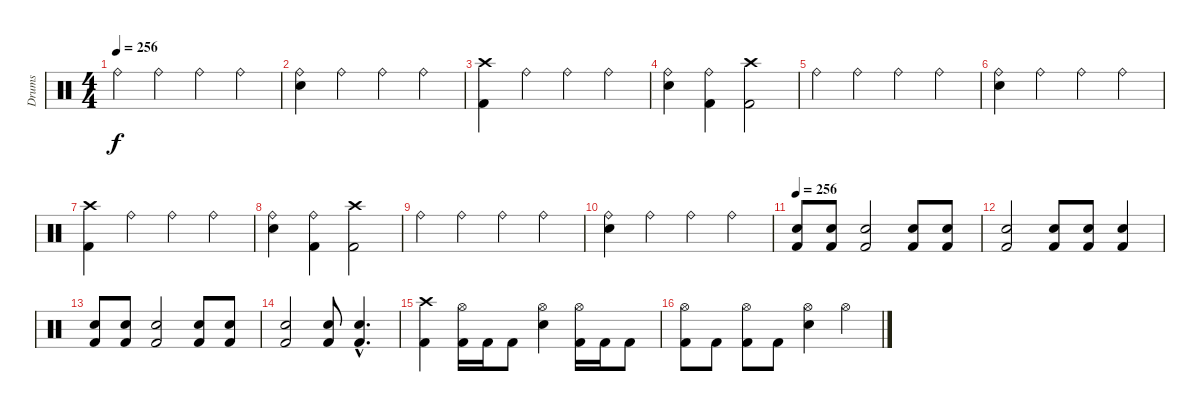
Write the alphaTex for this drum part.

\track ("Drums" "Drums") {instrument percussion}
\staff {score}
\articulation defaults
\ts (4 4)
\tempo 256
\clef neutral
\ks c "Ride (bell)".4{dy f} "Ride (bell)".4 "Ride (bell)".4 "Ride (bell)".4
|
("Electric Snare (hit)" "Ride (bell)").4 "Ride (bell)".4 "Ride (bell)".4 "Ride (bell)".4 |
("Crash high (hit)" "Kick (hit) 2").4 "Ride (bell)".4 "Ride (bell)".4 "Ride (bell)".4 |
("Electric Snare (hit)" "Ride (bell)").4 ("Kick (hit) 2" "Ride (bell)").4 ("Crash high (hit)" "Kick (hit) 2").2 |
"Ride (bell)".4 "Ride (bell)".4 "Ride (bell)".4 "Ride (bell)".4 |
("Electric Snare (hit)" "Ride (bell)").4 "Ride (bell)".4 "Ride (bell)".4 "Ride (bell)".4 |
("Crash high (hit)" "Kick (hit) 2").4 "Ride (bell)".4 "Ride (bell)".4 "Ride (bell)".4 |
("Electric Snare (hit)" "Ride (bell)").4 ("Kick (hit) 2" "Ride (bell)").4 ("Crash high (hit)" "Kick (hit) 2").2 |
"Ride (bell)".4 "Ride (bell)".4 "Ride (bell)".4 "Ride (bell)".4 |
("Electric Snare (hit)" "Ride (bell)").4 "Ride (bell)".4 "Ride (bell)".4 "Ride (bell)".4 |
\tempo 256
("Electric Snare (hit)" "Kick (hit) 2").8 ("Electric Snare (hit)" "Kick (hit) 2").8 ("Electric Snare (hit)" "Kick (hit) 2").2 ("Electric Snare (hit)" "Kick (hit) 2").8 ("Electric Snare (hit)" "Kick (hit) 2").8 |
("Electric Snare (hit)" "Kick (hit) 2").2 ("Electric Snare (hit)" "Kick (hit) 2").8 ("Electric Snare (hit)" "Kick (hit) 2").8 ("Electric Snare (hit)" "Kick (hit) 2").4 |
("Electric Snare (hit)" "Kick (hit) 2").8 ("Electric Snare (hit)" "Kick (hit) 2").8 ("Electric Snare (hit)" "Kick (hit) 2").2 ("Electric Snare (hit)" "Kick (hit) 2").8 ("Electric Snare (hit)" "Kick (hit) 2").8 |
("Electric Snare (hit)" "Kick (hit) 2").2 ("Electric Snare (hit)" "Kick (hit) 2").8 ("Electric Snare (hit)"{hac} "Kick (hit) 2"{hac}).4{d} |
("Crash high (hit)" "Kick (hit) 2").4 ("Hi-Hat (open)" "Kick (hit) 2").16 "Kick (hit) 2".16 "Kick (hit) 2".8 ("Hi-Hat (open)" "Electric Snare (hit)").4 ("Hi-Hat (open)" "Kick (hit) 2").16 "Kick (hit) 2".16 "Kick (hit) 2".8 |
("Hi-Hat (open)" "Kick (hit) 2").8 "Kick (hit) 2".8 ("Hi-Hat (open)" "Kick (hit) 2").8 "Kick (hit) 2".8 ("Hi-Hat (open)" "Electric Snare (hit)").4 "Hi-Hat (open)".4
